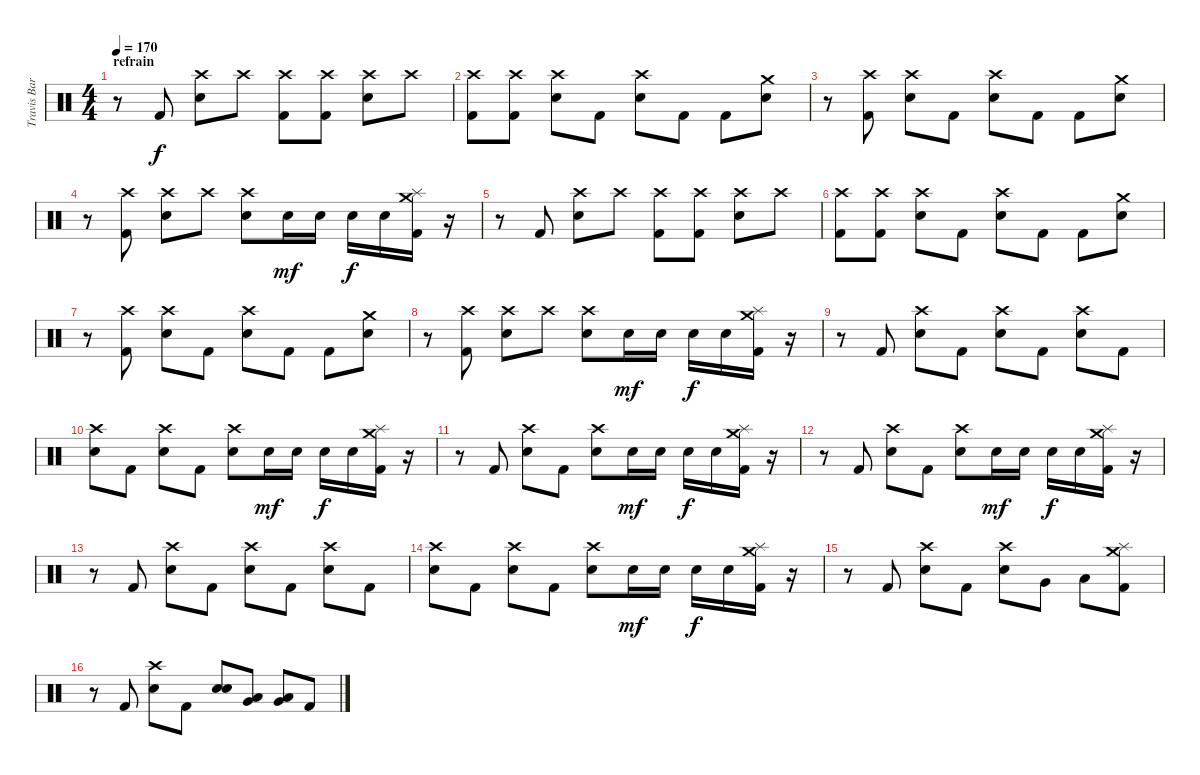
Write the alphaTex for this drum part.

\track ("Travis Barker" "Travis Bar") {instrument percussion}
\staff {score}
\articulation defaults
\ts (4 4)
\section ("" "refrain")
\tempo 170
\clef neutral
\ks c
r.8{dy f} "Kick (hit) 2".8 ("Crash high (hit)" "Electric Snare (hit)").8 "Crash high (hit)".8 ("Crash high (hit)" "Kick (hit) 2").8 ("Crash high (hit)" "Kick (hit) 2").8 ("Crash high (hit)" "Electric Snare (hit)").8 "Crash high (hit)".8 |
("Crash high (hit)" "Kick (hit) 2").8 ("Crash high (hit)" "Kick (hit) 2").8 ("Crash high (hit)" "Electric Snare (hit)").8 "Kick (hit) 2".8 ("Crash high (hit)" "Electric Snare (hit)").8 "Kick (hit) 2".8 "Kick (hit) 2".8 ("Crash medium (hit)" "Electric Snare (hit)").8 |
r.8 ("Crash high (hit)" "Kick (hit) 2").8 ("Crash high (hit)" "Electric Snare (hit)").8 "Kick (hit) 2".8 ("Crash high (hit)" "Electric Snare (hit)").8 "Kick (hit) 2".8 "Kick (hit) 2".8 ("Crash medium (hit)" "Electric Snare (hit)").8 |
r.8 ("Crash high (hit)" "Kick (hit) 2").8 ("Crash high (hit)" "Electric Snare (hit)").8 "Crash high (hit)".8 ("Crash high (hit)" "Electric Snare (hit)").8 "Electric Snare (hit)".16{dy mf} "Electric Snare (hit)".16 "Electric Snare (hit)".16{dy f} "Electric Snare (hit)".16 ("Crash medium (hit)" "Kick (hit) 2" "Splash (hit)").16 r.16 |
r.8 "Kick (hit) 2".8 ("Crash high (hit)" "Electric Snare (hit)").8 "Crash high (hit)".8 ("Crash high (hit)" "Kick (hit) 2").8 ("Crash high (hit)" "Kick (hit) 2").8 ("Crash high (hit)" "Electric Snare (hit)").8 "Crash high (hit)".8 |
("Crash high (hit)" "Kick (hit) 2").8 ("Crash high (hit)" "Kick (hit) 2").8 ("Crash high (hit)" "Electric Snare (hit)").8 "Kick (hit) 2".8 ("Crash high (hit)" "Electric Snare (hit)").8 "Kick (hit) 2".8 "Kick (hit) 2".8 ("Crash medium (hit)" "Electric Snare (hit)").8 |
r.8 ("Crash high (hit)" "Kick (hit) 2").8 ("Crash high (hit)" "Electric Snare (hit)").8 "Kick (hit) 2".8 ("Crash high (hit)" "Electric Snare (hit)").8 "Kick (hit) 2".8 "Kick (hit) 2".8 ("Crash medium (hit)" "Electric Snare (hit)").8 |
r.8 ("Crash high (hit)" "Kick (hit) 2").8 ("Crash high (hit)" "Electric Snare (hit)").8 "Crash high (hit)".8 ("Crash high (hit)" "Electric Snare (hit)").8 "Electric Snare (hit)".16{dy mf} "Electric Snare (hit)".16 "Electric Snare (hit)".16{dy f} "Electric Snare (hit)".16 ("Crash medium (hit)" "Kick (hit) 2" "Splash (hit)").16 r.16 |
r.8 "Kick (hit) 2".8 ("Crash high (hit)" "Electric Snare (hit)").8 "Kick (hit) 2".8 ("Crash high (hit)" "Electric Snare (hit)").8 "Kick (hit) 2".8 ("Crash high (hit)" "Electric Snare (hit)").8 "Kick (hit) 2".8 |
("Crash high (hit)" "Electric Snare (hit)").8 "Kick (hit) 2".8 ("Crash high (hit)" "Electric Snare (hit)").8 "Kick (hit) 2".8 ("Crash high (hit)" "Electric Snare (hit)").8 "Electric Snare (hit)".16{dy mf} "Electric Snare (hit)".16 "Electric Snare (hit)".16{dy f} "Electric Snare (hit)".16 ("Crash medium (hit)" "Kick (hit) 2" "Splash (hit)").16 r.16 |
r.8 "Kick (hit) 2".8 ("Crash high (hit)" "Electric Snare (hit)").8 "Kick (hit) 2".8 ("Crash high (hit)" "Electric Snare (hit)").8 "Electric Snare (hit)".16{dy mf} "Electric Snare (hit)".16 "Electric Snare (hit)".16{dy f} "Electric Snare (hit)".16 ("Crash medium (hit)" "Kick (hit) 2" "Splash (hit)").16 r.16 |
r.8 "Kick (hit) 2".8 ("Crash high (hit)" "Electric Snare (hit)").8 "Kick (hit) 2".8 ("Crash high (hit)" "Electric Snare (hit)").8 "Electric Snare (hit)".16{dy mf} "Electric Snare (hit)".16 "Electric Snare (hit)".16{dy f} "Electric Snare (hit)".16 ("Crash medium (hit)" "Kick (hit) 2" "Splash (hit)").16 r.16 |
r.8 "Kick (hit) 2".8 ("Crash high (hit)" "Electric Snare (hit)").8 "Kick (hit) 2".8 ("Crash high (hit)" "Electric Snare (hit)").8 "Kick (hit) 2".8 ("Crash high (hit)" "Electric Snare (hit)").8 "Kick (hit) 2".8 |
("Crash high (hit)" "Electric Snare (hit)").8 "Kick (hit) 2".8 ("Crash high (hit)" "Electric Snare (hit)").8 "Kick (hit) 2".8 ("Crash high (hit)" "Electric Snare (hit)").8 "Electric Snare (hit)".16{dy mf} "Electric Snare (hit)".16 "Electric Snare (hit)".16{dy f} "Electric Snare (hit)".16 ("Crash medium (hit)" "Kick (hit) 2" "Splash (hit)").16 r.16 |
r.8 "Kick (hit) 2".8 ("Crash high (hit)" "Electric Snare (hit)").8 "Kick (hit) 2".8 ("Crash high (hit)" "Electric Snare (hit)").8 "Very Low Tom (hit)".8 "Low Floor Tom (hit)".8 ("Crash medium (hit)" "Kick (hit) 2" "Splash (hit)").8 |
r.8 "Kick (hit) 2".8 ("Crash high (hit)" "Electric Snare (hit)").8 "Kick (hit) 2".8 ("Electric Snare (hit)" "Electric Snare (hit)").8 ("Very Low Tom (hit)" "Low Floor Tom (hit)").8 ("Very Low Tom (hit)" "Low Floor Tom (hit)").8 "Kick (hit) 2".8
